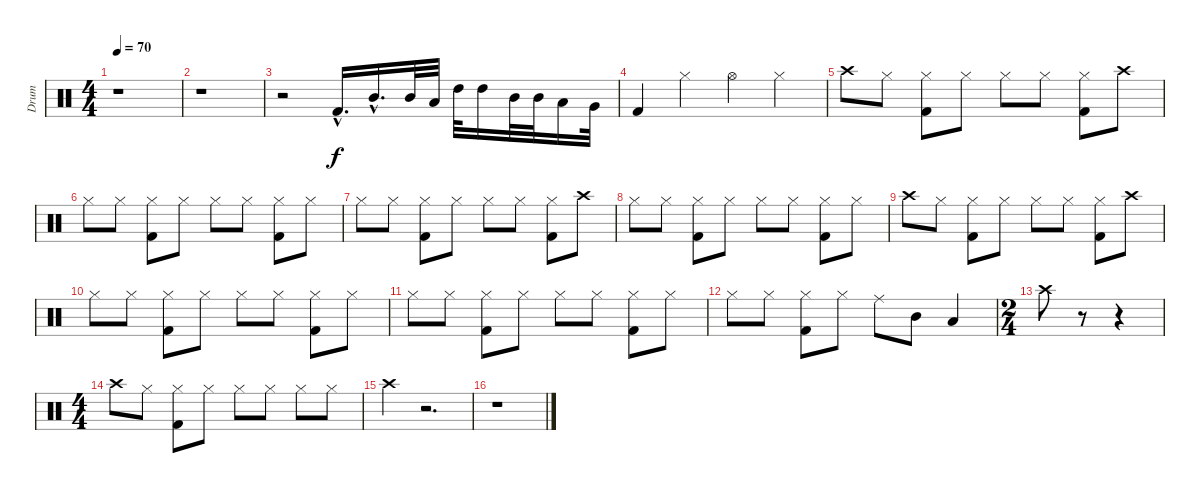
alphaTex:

\track ("Drum" "Drum") {instrument percussion}
\staff {score}
\articulation defaults
\ts (4 4)
\tempo 70
\clef neutral
\ks c
r.1{dy f} |
r.1 |
r.2 "Kick (hit) 2"{hac}.16{d} "Mid Tom (hit)"{hac}.16{d} "Mid Tom (hit)".32 "Low Tom (hit)".32 "High Tom (hit)".32 "High Tom (hit)".16 "Mid Tom (hit)".32 "Mid Tom (hit)".32 "Low Tom (hit)".16 "Very Low Tom (hit)".32 |
"Kick (hit) 2".4 "Hi-Hat (closed)".4 "Hi-Hat (open)".4 "Hi-Hat (closed)".4 |
"Crash high (hit)".8 "Hi-Hat (closed)".8 ("Hi-Hat (closed)" "Kick (hit) 2").8 "Hi-Hat (closed)".8 "Hi-Hat (closed)".8 "Hi-Hat (closed)".8 ("Hi-Hat (closed)" "Kick (hit) 2").8 "Crash high (hit)".8 |
"Hi-Hat (closed)".8 "Hi-Hat (closed)".8 ("Hi-Hat (closed)" "Kick (hit) 2").8 "Hi-Hat (closed)".8 "Hi-Hat (closed)".8 "Hi-Hat (closed)".8 ("Hi-Hat (closed)" "Kick (hit) 2").8 "Hi-Hat (closed)".8 |
"Hi-Hat (closed)".8 "Hi-Hat (closed)".8 ("Hi-Hat (closed)" "Kick (hit) 2").8 "Hi-Hat (closed)".8 "Hi-Hat (closed)".8 "Hi-Hat (closed)".8 ("Hi-Hat (closed)" "Kick (hit) 2").8 "Crash high (hit)".8 |
"Hi-Hat (closed)".8 "Hi-Hat (closed)".8 ("Hi-Hat (closed)" "Kick (hit) 2").8 "Hi-Hat (closed)".8 "Hi-Hat (closed)".8 "Hi-Hat (closed)".8 ("Hi-Hat (closed)" "Kick (hit) 2").8 "Hi-Hat (closed)".8 |
"Crash high (hit)".8 "Hi-Hat (closed)".8 ("Hi-Hat (closed)" "Kick (hit) 2").8 "Hi-Hat (closed)".8 "Hi-Hat (closed)".8 "Hi-Hat (closed)".8 ("Hi-Hat (closed)" "Kick (hit) 2").8 "Crash high (hit)".8 |
"Hi-Hat (closed)".8 "Hi-Hat (closed)".8 ("Hi-Hat (closed)" "Kick (hit) 2").8 "Hi-Hat (closed)".8 "Hi-Hat (closed)".8 "Hi-Hat (closed)".8 ("Hi-Hat (closed)" "Kick (hit) 2").8 "Hi-Hat (closed)".8 |
"Hi-Hat (closed)".8 "Hi-Hat (closed)".8 ("Hi-Hat (closed)" "Kick (hit) 2").8 "Hi-Hat (closed)".8 "Hi-Hat (closed)".8 "Hi-Hat (closed)".8 ("Hi-Hat (closed)" "Kick (hit) 2").8 "Hi-Hat (closed)".8 |
"Hi-Hat (closed)".8 "Hi-Hat (closed)".8 ("Hi-Hat (closed)" "Kick (hit) 2").8 "Hi-Hat (closed)".8 "Ride (middle)".8 "Mid Tom (hit)".8 "Low Tom (hit)".4 |
\ts (2 4)
"Crash high (hit)".8 r.8 r.4 |
\ts (4 4)
"Crash high (hit)".8 "Hi-Hat (closed)".8 ("Hi-Hat (closed)" "Kick (hit) 2").8 "Hi-Hat (closed)".8 "Hi-Hat (closed)".8 "Hi-Hat (closed)".8 "Hi-Hat (closed)".8 "Hi-Hat (closed)".8 |
"Crash high (hit)".4 r.2{d} |
r.1
